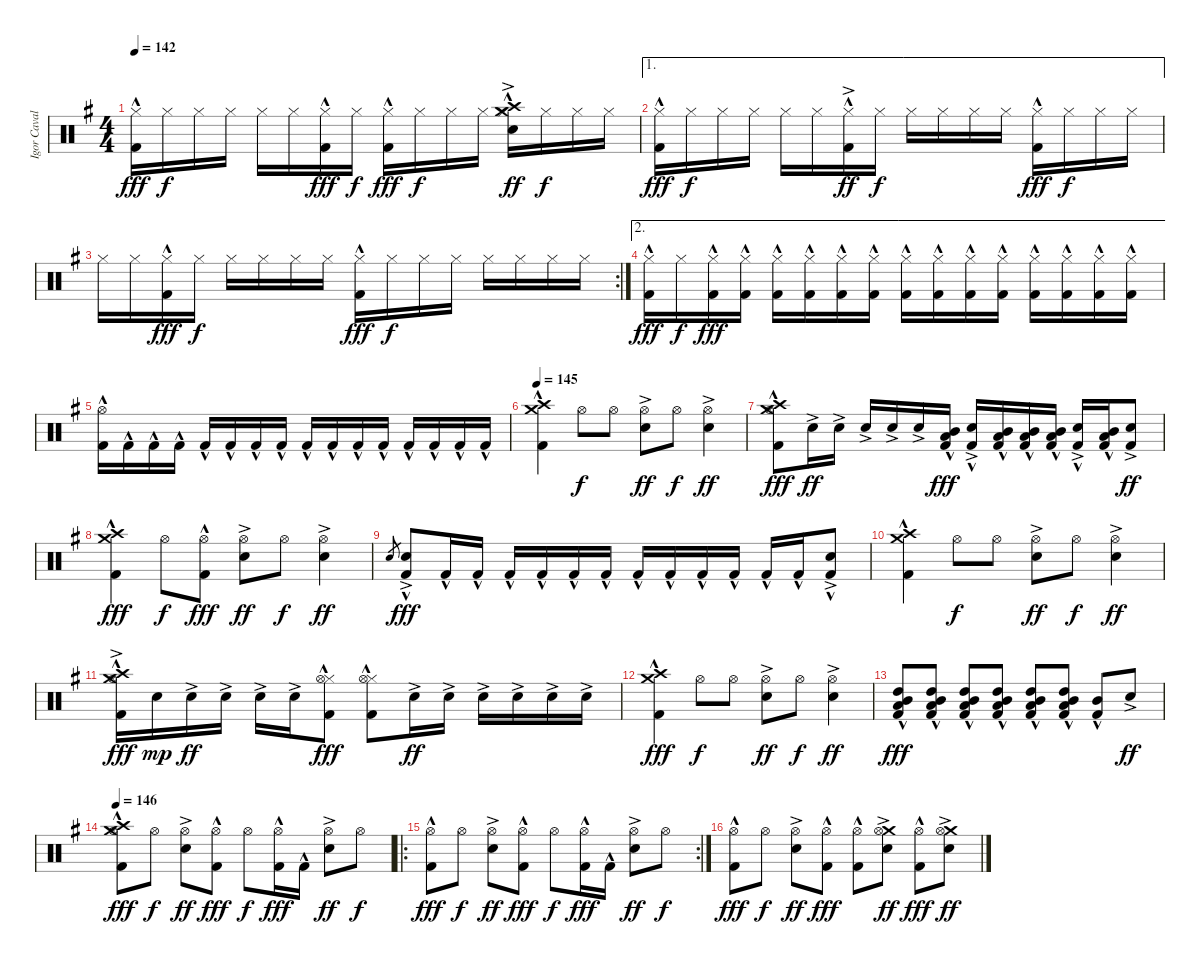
\track ("Igor Cavalera" "Igor Caval") {instrument percussion}
\staff {score}
\articulation defaults
\ts (4 4)
\tempo 142
\clef neutral
\ks g
("Hi-Hat (closed)" "Kick (hit) 2"{hac}).16{dy fff} "Hi-Hat (closed)".16{dy f} "Hi-Hat (closed)".16 "Hi-Hat (closed)".16 "Hi-Hat (closed)".16 "Hi-Hat (closed)".16 ("Hi-Hat (closed)" "Kick (hit) 2"{hac}).16{dy fff} "Hi-Hat (closed)".16{dy f} ("Hi-Hat (closed)" "Kick (hit) 2"{hac}).16{dy fff} "Hi-Hat (closed)".16{dy f} "Hi-Hat (closed)".16 "Hi-Hat (closed)".16 ("Crash medium (hit)"{hac} "Crash high (hit)" "Snare (hit) 2"{ac} "Hi-Hat (closed)").16{dy ff} "Hi-Hat (closed)".16{dy f} "Hi-Hat (closed)".16 "Hi-Hat (closed)".16 |
\ae 1
("Hi-Hat (closed)"{hac} "Kick (hit) 2"{hac}).16{dy fff} "Hi-Hat (closed)".16{dy f} "Hi-Hat (closed)".16 "Hi-Hat (closed)".16 "Hi-Hat (closed)".16 "Hi-Hat (closed)".16 ("Hi-Hat (closed)"{hac} "Kick (hit) 2"{ac}).16{dy ff} "Hi-Hat (closed)".16{dy f} "Hi-Hat (closed)".16 "Hi-Hat (closed)".16 "Hi-Hat (closed)".16 "Hi-Hat (closed)".16 ("Hi-Hat (closed)"{hac} "Kick (hit) 2"{hac}).16{dy fff} "Hi-Hat (closed)".16{dy f} "Hi-Hat (closed)".16 "Hi-Hat (closed)".16 |
\rc 2 "Hi-Hat (closed)".16 "Hi-Hat (closed)".16
("Hi-Hat (closed)"{hac} "Kick (hit) 2"{hac}).16{dy fff} "Hi-Hat (closed)".16{dy f} "Hi-Hat (closed)".16 "Hi-Hat (closed)".16 "Hi-Hat (closed)".16 "Hi-Hat (closed)".16 ("Hi-Hat (closed)"{hac} "Kick (hit) 2"{hac}).16{dy fff} "Hi-Hat (closed)".16{dy f} "Hi-Hat (closed)".16 "Hi-Hat (closed)".16 "Hi-Hat (closed)".16 "Hi-Hat (closed)".16 "Hi-Hat (closed)".16 "Hi-Hat (closed)".16 |
\ae 2
("Hi-Hat (closed)" "Kick (hit) 2"{hac}).16{dy fff} "Hi-Hat (closed)".16{dy f} ("Hi-Hat (closed)" "Kick (hit) 2"{hac}).16{dy fff} ("Hi-Hat (closed)" "Kick (hit) 2"{hac}).16 ("Hi-Hat (closed)" "Kick (hit) 2"{hac}).16 ("Hi-Hat (closed)" "Kick (hit) 2"{hac}).16 ("Hi-Hat (closed)" "Kick (hit) 2"{hac}).16 ("Hi-Hat (closed)" "Kick (hit) 2"{hac}).16 ("Hi-Hat (closed)" "Kick (hit) 2"{hac}).16 ("Hi-Hat (closed)" "Kick (hit) 2"{hac}).16 ("Hi-Hat (closed)" "Kick (hit) 2"{hac}).16 ("Hi-Hat (closed)" "Kick (hit) 2"{hac}).16 ("Hi-Hat (closed)" "Kick (hit) 2"{hac}).16 ("Hi-Hat (closed)" "Kick (hit) 2"{hac}).16 ("Hi-Hat (closed)" "Kick (hit) 2"{hac}).16 ("Hi-Hat (closed)" "Kick (hit) 2"{hac}).16 |
("Hi-Hat (open)" "Kick (hit) 2"{hac}).16 "Kick (hit) 2"{hac}.16 "Kick (hit) 2"{hac}.16 "Kick (hit) 2"{hac}.16 "Kick (hit) 2"{hac}.16 "Kick (hit) 2"{hac}.16 "Kick (hit) 2"{hac}.16 "Kick (hit) 2"{hac}.16 "Kick (hit) 2"{hac}.16 "Kick (hit) 2"{hac}.16 "Kick (hit) 2"{hac}.16 "Kick (hit) 2"{hac}.16 "Kick (hit) 2"{hac}.16 "Kick (hit) 2"{hac}.16 "Kick (hit) 2"{hac}.16 "Kick (hit) 2"{hac}.16 |
\tempo 145
("Crash high (hit)"{hac} "Crash medium (hit)" "Kick (hit) 2"{hac}).4 "Hi-Hat (open)".8{dy f} "Hi-Hat (open)".8 ("Snare (hit) 2"{ac} "Hi-Hat (open)").8{dy ff} "Hi-Hat (open)".8{dy f} ("Snare (hit) 2"{ac} "Hi-Hat (open)").4{dy ff} |
("Crash high (hit)" "Crash medium (hit)"{hac} "Hi-Hat (open)" "Kick (hit) 2"{hac}).8{dy fff} "Snare (hit) 2"{ac}.16{dy ff} "Snare (hit) 2"{ac}.16 "Snare (hit) 2"{ac}.16 "Snare (hit) 2"{ac}.16 "Snare (hit) 2"{ac}.16 ("Mid Tom (hit)"{hac} "Low Tom (hit)"{hac} "Kick (hit) 2"{hac}).16{dy fff} ("Snare (hit) 2"{ac} "Kick (hit) 2"{hac}).16 ("Mid Tom (hit)"{hac} "Low Tom (hit)"{hac} "Kick (hit) 2"{hac}).16 ("Mid Tom (hit)"{hac} "Low Tom (hit)"{hac} "Kick (hit) 2"{hac}).16 ("Mid Tom (hit)"{hac} "Low Tom (hit)"{hac} "Kick (hit) 2"{hac}).16 ("Snare (hit) 2"{ac} "Kick (hit) 2"{hac}).16 ("Mid Tom (hit)"{hac} "Low Tom (hit)"{hac} "Kick (hit) 2"{hac}).16 ("Snare (hit) 2"{ac} "Kick (hit) 2").8{dy ff} |
("Crash high (hit)"{hac} "Crash medium (hit)" "Kick (hit) 2"{hac}).4{dy fff} "Hi-Hat (open)".8{dy f} ("Hi-Hat (open)" "Kick (hit) 2"{hac}).8{dy fff} ("Snare (hit) 2"{ac} "Hi-Hat (open)").8{dy ff} "Hi-Hat (open)".8{dy f} ("Snare (hit) 2"{ac} "Hi-Hat (open)").4{dy ff} |
"Snare (hit) 2".8{gr} ("Snare (hit) 2"{ac} "Kick (hit) 2"{hac}).8{dy fff} "Kick (hit) 2"{hac}.16 "Kick (hit) 2"{hac}.16 "Kick (hit) 2"{hac}.16 "Kick (hit) 2"{hac}.16 "Kick (hit) 2"{hac}.16 "Kick (hit) 2"{hac}.16 "Kick (hit) 2"{hac}.16 "Kick (hit) 2"{hac}.16 "Kick (hit) 2"{hac}.16 "Kick (hit) 2"{hac}.16 "Kick (hit) 2"{hac}.16 "Kick (hit) 2"{hac}.16 ("Snare (hit) 2"{ac} "Kick (hit) 2"{hac}).8 |
("Crash high (hit)"{hac} "Crash medium (hit)" "Kick (hit) 2"{hac}).4 "Hi-Hat (open)".8{dy f} "Hi-Hat (open)".8 ("Snare (hit) 2"{ac} "Hi-Hat (open)").8{dy ff} "Hi-Hat (open)".8{dy f} ("Snare (hit) 2"{ac} "Hi-Hat (open)").4{dy ff} |
("Crash high (hit)"{hac} "Crash medium (hit)" "Hi-Hat (open)"{ac} "Kick (hit) 2"{hac}).16{dy fff} "Snare (hit) 2".16{dy mp} "Snare (hit) 2"{ac}.16{dy ff} "Snare (hit) 2"{ac}.16 "Snare (hit) 2"{ac}.16 "Snare (hit) 2"{ac}.16 ("Hi-Hat (closed)"{hac} "Hi-Hat (open)" "Kick (hit) 2").8{dy fff} ("Hi-Hat (closed)"{hac} "Hi-Hat (open)" "Kick (hit) 2"{hac}).8 "Snare (hit) 2"{ac}.16{dy ff} "Snare (hit) 2"{ac}.16 "Snare (hit) 2"{ac}.16 "Snare (hit) 2"{ac}.16 "Snare (hit) 2"{ac}.16 "Snare (hit) 2"{ac}.16 |
("Crash high (hit)"{hac} "Crash medium (hit)" "Kick (hit) 2"{hac}).4{dy fff} "Hi-Hat (open)".8{dy f} "Hi-Hat (open)".8 ("Snare (hit) 2"{ac} "Hi-Hat (open)").8{dy ff} "Hi-Hat (open)".8{dy f} ("Snare (hit) 2"{ac} "Hi-Hat (open)").4{dy ff} |
("High Tom (hit)"{hac} "Mid Tom (hit)"{hac} "Low Tom (hit)"{hac} "Kick (hit) 2"{hac}).8{dy fff} ("High Tom (hit)"{hac} "Mid Tom (hit)"{hac} "Low Tom (hit)"{hac} "Kick (hit) 2"{hac}).8 ("High Tom (hit)"{hac} "Mid Tom (hit)" "Low Tom (hit)"{hac} "Kick (hit) 2"{hac}).8 ("High Tom (hit)"{hac} "Mid Tom (hit)"{hac} "Low Tom (hit)"{hac} "Kick (hit) 2"{hac}).8 ("High Tom (hit)"{hac} "Mid Tom (hit)"{hac} "Low Tom (hit)"{hac} "Kick (hit) 2"{hac}).8 ("High Tom (hit)"{hac} "Mid Tom (hit)"{hac} "Low Tom (hit)"{hac} "Kick (hit) 2"{hac}).8 ("Mid Tom (hit)"{hac} "Kick (hit) 2"{hac}).8 "Snare (hit) 2"{ac}.8{dy ff} |
\tempo 146
("Crash high (hit)"{hac} "Crash medium (hit)" "Hi-Hat (open)" "Kick (hit) 2"{hac}).8{dy fff} "Hi-Hat (open)".8{dy f} ("Snare (hit) 2"{ac} "Hi-Hat (open)").8{dy ff} ("Hi-Hat (open)" "Kick (hit) 2"{hac}).8{dy fff} "Hi-Hat (open)".8{dy f} ("Hi-Hat (open)" "Kick (hit) 2"{hac}).16{dy fff} "Kick (hit) 2"{hac}.16 ("Snare (hit) 2"{ac} "Hi-Hat (open)").8{dy ff} "Hi-Hat (open)".8{dy f} |
\ro
\rc 2
("Hi-Hat (open)" "Kick (hit) 2"{hac}).8{dy fff} "Hi-Hat (open)".8{dy f} ("Snare (hit) 2"{ac} "Hi-Hat (open)").8{dy ff} ("Hi-Hat (open)" "Kick (hit) 2"{hac}).8{dy fff} "Hi-Hat (open)".8{dy f} ("Hi-Hat (open)" "Kick (hit) 2"{hac}).16{dy fff} "Kick (hit) 2"{hac}.16 ("Snare (hit) 2"{ac} "Hi-Hat (open)").8{dy ff} "Hi-Hat (open)".8{dy f} |
("Hi-Hat (open)" "Kick (hit) 2"{hac}).8{dy fff} "Hi-Hat (open)".8{dy f} ("Snare (hit) 2"{ac} "Hi-Hat (open)").8{dy ff} ("Hi-Hat (open)" "Kick (hit) 2"{hac}).8{dy fff} ("Hi-Hat (open)" "Kick (hit) 2"{hac}).8 ("Crash medium (hit)"{ac} "Snare (hit) 2"{ac} "Hi-Hat (open)").8{dy ff} ("Hi-Hat (open)" "Kick (hit) 2"{hac}).8{dy fff} ("Crash medium (hit)"{ac} "Snare (hit) 2"{ac} "Hi-Hat (open)").8{dy ff}
